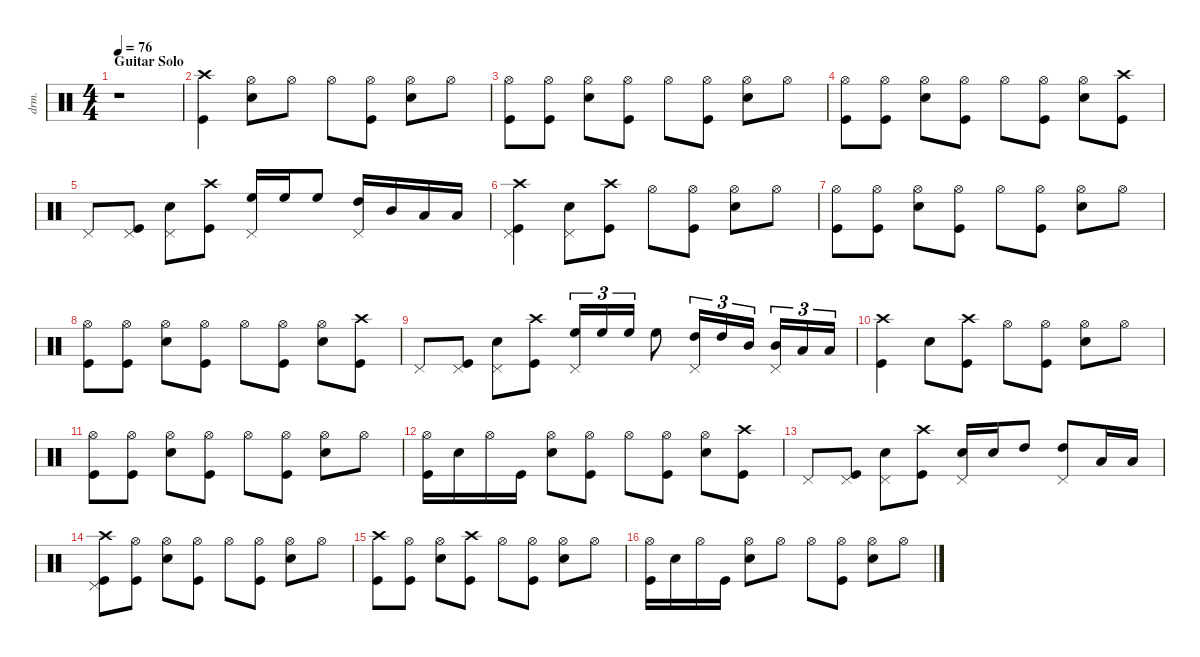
\defaultSystemsLayout 4
\hideDynamics
\bracketExtendMode nobrackets
\otherSystemsTrackNameOrientation horizontal
\track ("Percussion" "drm.") {instrument percussion}
\staff {score}
\articulation defaults
\ts (4 4)
\section ("" "Guitar Solo")
\tempo 76
\clef neutral
\ks c
r.1{dy ff beam Down} |
("Crash high (hit)" "Kick (hit)").4{beam Down} ("Hi-Hat (open)" "Snare (hit) 2").8{beam Down} "Hi-Hat (open)".8{beam Down} "Hi-Hat (open)".8{beam Down} ("Hi-Hat (open)" "Kick (hit)").8{beam Down} ("Hi-Hat (open)" "Snare (hit) 2").8{beam Down} "Hi-Hat (open)".8{beam Down} |
("Hi-Hat (open)" "Kick (hit)").8{beam Down} ("Hi-Hat (open)" "Kick (hit)").8{beam Down} ("Hi-Hat (open)" "Snare (hit) 2").8{beam Down} ("Hi-Hat (open)" "Kick (hit)").8{beam Down} "Hi-Hat (open)".8{beam Down} ("Hi-Hat (open)" "Kick (hit)").8{beam Down} ("Hi-Hat (open)" "Snare (hit) 2").8{beam Down} "Hi-Hat (open)".8{beam Down} |
("Hi-Hat (open)" "Kick (hit)").8{beam Down} ("Hi-Hat (open)" "Kick (hit)").8{beam Down} ("Hi-Hat (open)" "Snare (hit) 2").8{beam Down} ("Hi-Hat (open)" "Kick (hit)").8{beam Down} "Hi-Hat (open)".8{beam Down} ("Hi-Hat (open)" "Kick (hit)").8{beam Down} ("Hi-Hat (open)" "Snare (hit) 2").8{beam Down} ("Crash high (hit)" "Kick (hit)").8{beam Down} |
"Pedal Hi-Hat (hit)".8{beam Up} ("Pedal Hi-Hat (hit)" "Kick (hit)").8{beam Up} ("Pedal Hi-Hat (hit)" "Snare (hit) 2").8{beam Down} ("Crash high (hit)" "Kick (hit)").8{beam Down} ("Pedal Hi-Hat (hit)" "High Floor Tom (hit)").16{beam Up} "High Floor Tom (hit)".16{beam Up} "High Floor Tom (hit)".8{beam Up} ("Pedal Hi-Hat (hit)" "High Tom (hit)").16{beam Up} "Mid Tom (hit)".16{beam Up} "Low Tom (hit)".16{beam Up} "Low Tom (hit)".16{beam Up} |
("Pedal Hi-Hat (hit)" "Crash high (hit)" "Kick (hit)").4{beam Down} ("Pedal Hi-Hat (hit)" "Snare (hit) 2").8{beam Down} ("Crash high (hit)" "Kick (hit)").8{beam Down} "Hi-Hat (open)".8{beam Down} ("Hi-Hat (open)" "Kick (hit)").8{beam Down} ("Hi-Hat (open)" "Snare (hit) 2").8{beam Down} "Hi-Hat (open)".8{beam Down} |
("Hi-Hat (open)" "Kick (hit)").8{beam Down} ("Hi-Hat (open)" "Kick (hit)").8{beam Down} ("Hi-Hat (open)" "Snare (hit) 2").8{beam Down} ("Hi-Hat (open)" "Kick (hit)").8{beam Down} "Hi-Hat (open)".8{beam Down} ("Hi-Hat (open)" "Kick (hit)").8{beam Down} ("Hi-Hat (open)" "Snare (hit) 2").8{beam Down} "Hi-Hat (open)".8{beam Down} |
("Hi-Hat (open)" "Kick (hit)").8{beam Down} ("Hi-Hat (open)" "Kick (hit)").8{beam Down} ("Hi-Hat (open)" "Snare (hit) 2").8{beam Down} ("Hi-Hat (open)" "Kick (hit)").8{beam Down} "Hi-Hat (open)".8{beam Down} ("Hi-Hat (open)" "Kick (hit)").8{beam Down} ("Hi-Hat (open)" "Snare (hit) 2").8{beam Down} ("Crash high (hit)" "Kick (hit)").8{beam Down} |
"Pedal Hi-Hat (hit)".8{beam Up} ("Pedal Hi-Hat (hit)" "Kick (hit)").8{beam Up} ("Pedal Hi-Hat (hit)" "Snare (hit) 2").8{beam Down} ("Crash high (hit)" "Kick (hit)").8{beam Down} ("Pedal Hi-Hat (hit)" "High Floor Tom (hit)").16{tu (3 2) beam Up} "High Floor Tom (hit)".16{tu (3 2) beam Up} "High Floor Tom (hit)".16{tu (3 2) beam Up} "High Floor Tom (hit)".8{beam Down} ("Pedal Hi-Hat (hit)" "High Tom (hit)").16{tu (3 2) beam Up} "High Tom (hit)".16{tu (3 2) beam Up} "Mid Tom (hit)".16{tu (3 2) beam Up} ("Pedal Hi-Hat (hit)" "Mid Tom (hit)").16{tu (3 2) beam Up} "Low Tom (hit)".16{tu (3 2) beam Up} "Low Tom (hit)".16{tu (3 2) beam Up} |
("Crash high (hit)" "Kick (hit)").4{beam Down} "Snare (hit) 2".8{beam Down} ("Crash high (hit)" "Kick (hit)").8{beam Down} "Hi-Hat (open)".8{beam Down} ("Hi-Hat (open)" "Kick (hit)").8{beam Down} ("Hi-Hat (open)" "Snare (hit) 2").8{beam Down} "Hi-Hat (open)".8{beam Down} |
("Hi-Hat (open)" "Kick (hit)").8{beam Down} ("Hi-Hat (open)" "Kick (hit)").8{beam Down} ("Hi-Hat (open)" "Snare (hit) 2").8{beam Down} ("Hi-Hat (open)" "Kick (hit)").8{beam Down} "Hi-Hat (open)".8{beam Down} ("Hi-Hat (open)" "Kick (hit)").8{beam Down} ("Hi-Hat (open)" "Snare (hit) 2").8{beam Down} "Hi-Hat (open)".8{beam Down} |
("Hi-Hat (open)" "Kick (hit)").16{beam Down} "Snare (hit) 2".16{beam Down} "Hi-Hat (open)".16{beam Down} "Kick (hit)".16{beam Down} ("Hi-Hat (open)" "Snare (hit) 2").8{beam Down} ("Hi-Hat (open)" "Kick (hit)").8{beam Down} "Hi-Hat (open)".8{beam Down} ("Hi-Hat (open)" "Kick (hit)").8{beam Down} ("Hi-Hat (open)" "Snare (hit) 2").8{beam Down} ("Crash high (hit)" "Kick (hit)").8{beam Down} |
"Pedal Hi-Hat (hit)".8{beam Up} ("Pedal Hi-Hat (hit)" "Kick (hit)").8{beam Up} ("Pedal Hi-Hat (hit)" "Snare (hit) 2").8{beam Down} ("Crash high (hit)" "Kick (hit)").8{beam Down} ("Pedal Hi-Hat (hit)" "Snare (hit) 2").16{beam Up} "Snare (hit) 2".16{beam Up} "High Tom (hit)".8{beam Up} ("Pedal Hi-Hat (hit)" "High Tom (hit)").8{beam Up} "Low Tom (hit)".16{beam Up} "Low Tom (hit)".16{beam Up} |
("Crash high (hit)" "Pedal Hi-Hat (hit)" "Kick (hit)").8{beam Down} ("Hi-Hat (open)" "Kick (hit)").8{beam Down} ("Hi-Hat (open)" "Snare (hit) 2").8{beam Down} ("Hi-Hat (open)" "Kick (hit)").8{beam Down} "Hi-Hat (open)".8{beam Down} ("Hi-Hat (open)" "Kick (hit)").8{beam Down} ("Hi-Hat (open)" "Snare (hit) 2").8{beam Down} "Hi-Hat (open)".8{beam Down} |
("Crash high (hit)" "Kick (hit)").8{beam Down} ("Hi-Hat (open)" "Kick (hit)").8{beam Down} ("Hi-Hat (open)" "Snare (hit) 2").8{beam Down} ("Crash high (hit)" "Kick (hit)").8{beam Down} "Hi-Hat (open)".8{beam Down} ("Hi-Hat (open)" "Kick (hit)").8{beam Down} ("Hi-Hat (open)" "Snare (hit) 2").8{beam Down} "Hi-Hat (open)".8{beam Down} |
("Hi-Hat (open)" "Kick (hit)").16{beam Down} "Snare (hit) 2".16{beam Down} "Hi-Hat (open)".16{beam Down} "Kick (hit)".16{beam Down} ("Hi-Hat (open)" "Snare (hit) 2").8{beam Down} "Hi-Hat (open)".8{beam Down} "Hi-Hat (open)".8{beam Down} ("Hi-Hat (open)" "Kick (hit)").8{beam Down} ("Hi-Hat (open)" "Snare (hit) 2").8{beam Down} "Hi-Hat (open)".8{beam Down}
